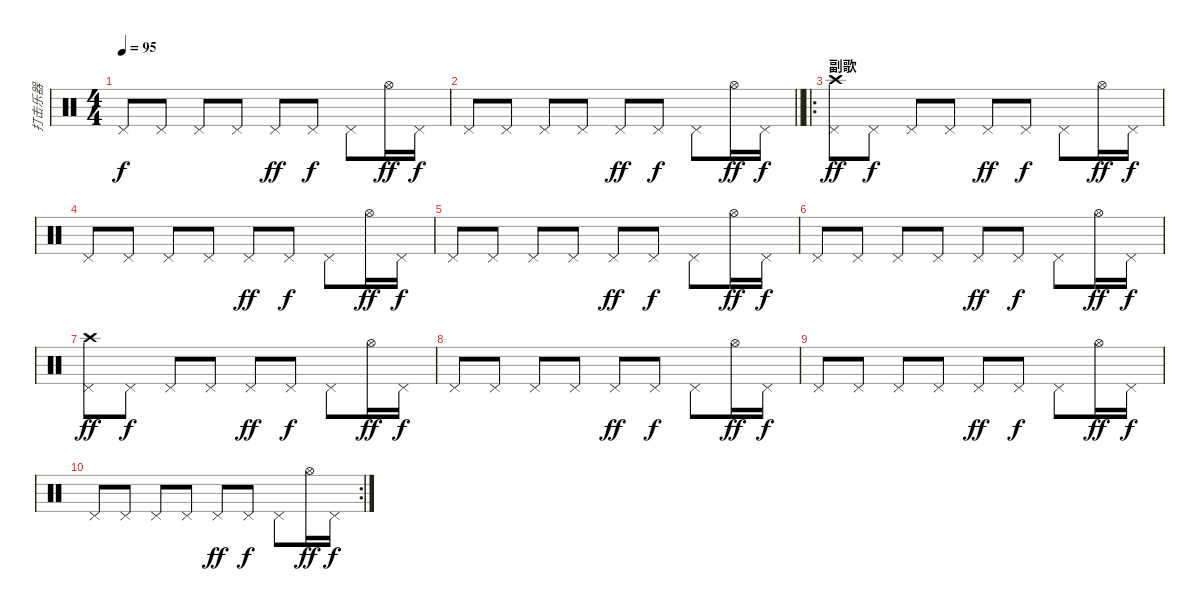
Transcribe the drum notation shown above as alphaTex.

\track ("打击乐器" "打击乐器") {instrument percussion}
\staff {score}
\articulation defaults
\ts (4 4)
\tempo 95
\clef neutral
\ks c "Pedal Hi-Hat (hit)".8{dy f} "Pedal Hi-Hat (hit)".8 "Pedal Hi-Hat (hit)".8 "Pedal Hi-Hat (hit)".8 "Pedal Hi-Hat (hit)".8{dy ff} "Pedal Hi-Hat (hit)".8{dy f} "Pedal Hi-Hat (hit)".8 "Hi-Hat (open)".16{dy ff} "Pedal Hi-Hat (hit)".16{dy f}
|
\barLineRight lightlight "Pedal Hi-Hat (hit)".8 "Pedal Hi-Hat (hit)".8 "Pedal Hi-Hat (hit)".8 "Pedal Hi-Hat (hit)".8 "Pedal Hi-Hat (hit)".8{dy ff} "Pedal Hi-Hat (hit)".8{dy f} "Pedal Hi-Hat (hit)".8 "Hi-Hat (open)".16{dy ff} "Pedal Hi-Hat (hit)".16{dy f}
|
\ro
\section ("" "副歌")
("Pedal Hi-Hat (hit)" "Crash high (hit)").8{dy ff} "Pedal Hi-Hat (hit)".8{dy f} "Pedal Hi-Hat (hit)".8 "Pedal Hi-Hat (hit)".8 "Pedal Hi-Hat (hit)".8{dy ff} "Pedal Hi-Hat (hit)".8{dy f} "Pedal Hi-Hat (hit)".8 "Hi-Hat (open)".16{dy ff} "Pedal Hi-Hat (hit)".16{dy f} |
"Pedal Hi-Hat (hit)".8 "Pedal Hi-Hat (hit)".8 "Pedal Hi-Hat (hit)".8 "Pedal Hi-Hat (hit)".8 "Pedal Hi-Hat (hit)".8{dy ff} "Pedal Hi-Hat (hit)".8{dy f} "Pedal Hi-Hat (hit)".8 "Hi-Hat (open)".16{dy ff} "Pedal Hi-Hat (hit)".16{dy f} |
"Pedal Hi-Hat (hit)".8 "Pedal Hi-Hat (hit)".8 "Pedal Hi-Hat (hit)".8 "Pedal Hi-Hat (hit)".8 "Pedal Hi-Hat (hit)".8{dy ff} "Pedal Hi-Hat (hit)".8{dy f} "Pedal Hi-Hat (hit)".8 "Hi-Hat (open)".16{dy ff} "Pedal Hi-Hat (hit)".16{dy f} |
"Pedal Hi-Hat (hit)".8 "Pedal Hi-Hat (hit)".8 "Pedal Hi-Hat (hit)".8 "Pedal Hi-Hat (hit)".8 "Pedal Hi-Hat (hit)".8{dy ff} "Pedal Hi-Hat (hit)".8{dy f} "Pedal Hi-Hat (hit)".8 "Hi-Hat (open)".16{dy ff} "Pedal Hi-Hat (hit)".16{dy f} |
("Pedal Hi-Hat (hit)" "Crash high (hit)").8{dy ff} "Pedal Hi-Hat (hit)".8{dy f} "Pedal Hi-Hat (hit)".8 "Pedal Hi-Hat (hit)".8 "Pedal Hi-Hat (hit)".8{dy ff} "Pedal Hi-Hat (hit)".8{dy f} "Pedal Hi-Hat (hit)".8 "Hi-Hat (open)".16{dy ff} "Pedal Hi-Hat (hit)".16{dy f} |
"Pedal Hi-Hat (hit)".8 "Pedal Hi-Hat (hit)".8 "Pedal Hi-Hat (hit)".8 "Pedal Hi-Hat (hit)".8 "Pedal Hi-Hat (hit)".8{dy ff} "Pedal Hi-Hat (hit)".8{dy f} "Pedal Hi-Hat (hit)".8 "Hi-Hat (open)".16{dy ff} "Pedal Hi-Hat (hit)".16{dy f} |
"Pedal Hi-Hat (hit)".8 "Pedal Hi-Hat (hit)".8 "Pedal Hi-Hat (hit)".8 "Pedal Hi-Hat (hit)".8 "Pedal Hi-Hat (hit)".8{dy ff} "Pedal Hi-Hat (hit)".8{dy f} "Pedal Hi-Hat (hit)".8 "Hi-Hat (open)".16{dy ff} "Pedal Hi-Hat (hit)".16{dy f} |
\rc 2 "Pedal Hi-Hat (hit)".8 "Pedal Hi-Hat (hit)".8 "Pedal Hi-Hat (hit)".8 "Pedal Hi-Hat (hit)".8 "Pedal Hi-Hat (hit)".8{dy ff} "Pedal Hi-Hat (hit)".8{dy f} "Pedal Hi-Hat (hit)".8 "Hi-Hat (open)".16{dy ff} "Pedal Hi-Hat (hit)".16{dy f}
